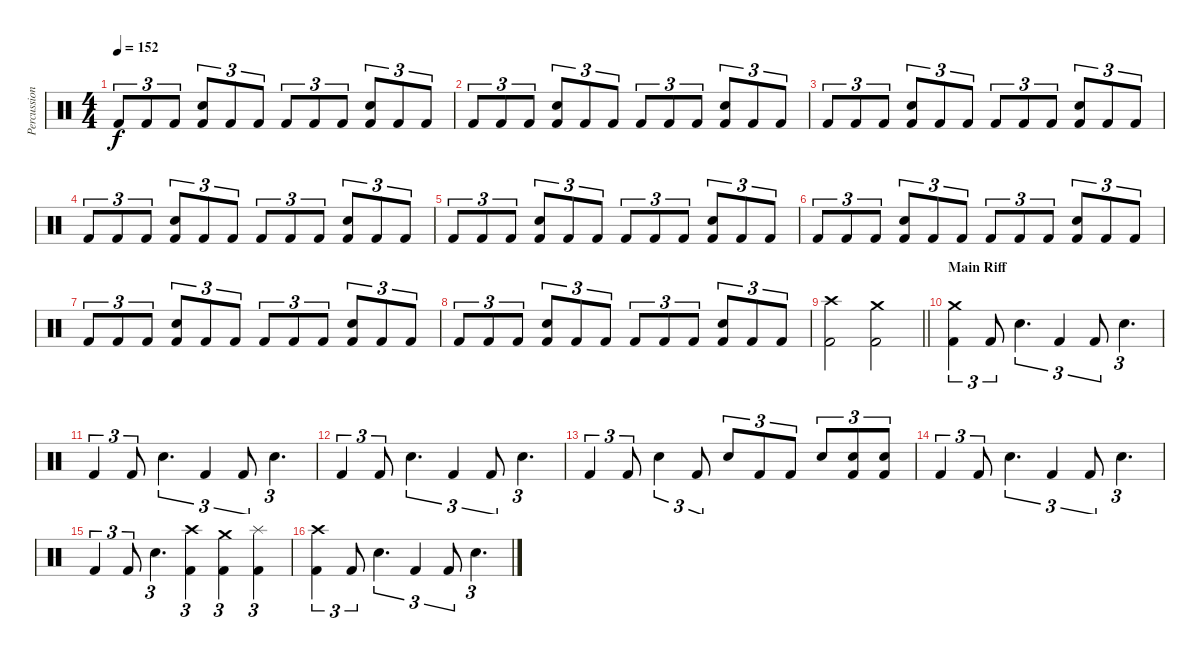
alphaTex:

\track ("Percussion" "Percussion") {instrument percussion}
\staff {score}
\articulation defaults
\ts (4 4)
\tempo 152
\clef neutral
\ks c "Kick (hit) 2".8{tu (3 2) dy f} "Kick (hit) 2".8{tu (3 2)} "Kick (hit) 2".8{tu (3 2)}
("Kick (hit) 2" "Electric Snare (hit)").8{tu (3 2)} "Kick (hit) 2".8{tu (3 2)} "Kick (hit) 2".8{tu (3 2)} "Kick (hit) 2".8{tu (3 2)} "Kick (hit) 2".8{tu (3 2)} "Kick (hit) 2".8{tu (3 2)} ("Kick (hit) 2" "Electric Snare (hit)").8{tu (3 2)} "Kick (hit) 2".8{tu (3 2)} "Kick (hit) 2".8{tu (3 2)} |
"Kick (hit) 2".8{tu (3 2)} "Kick (hit) 2".8{tu (3 2)} "Kick (hit) 2".8{tu (3 2)} ("Kick (hit) 2" "Electric Snare (hit)").8{tu (3 2)} "Kick (hit) 2".8{tu (3 2)} "Kick (hit) 2".8{tu (3 2)} "Kick (hit) 2".8{tu (3 2)} "Kick (hit) 2".8{tu (3 2)} "Kick (hit) 2".8{tu (3 2)} ("Kick (hit) 2" "Electric Snare (hit)").8{tu (3 2)} "Kick (hit) 2".8{tu (3 2)} "Kick (hit) 2".8{tu (3 2)} |
"Kick (hit) 2".8{tu (3 2)} "Kick (hit) 2".8{tu (3 2)} "Kick (hit) 2".8{tu (3 2)} ("Kick (hit) 2" "Electric Snare (hit)").8{tu (3 2)} "Kick (hit) 2".8{tu (3 2)} "Kick (hit) 2".8{tu (3 2)} "Kick (hit) 2".8{tu (3 2)} "Kick (hit) 2".8{tu (3 2)} "Kick (hit) 2".8{tu (3 2)} ("Kick (hit) 2" "Electric Snare (hit)").8{tu (3 2)} "Kick (hit) 2".8{tu (3 2)} "Kick (hit) 2".8{tu (3 2)} |
"Kick (hit) 2".8{tu (3 2)} "Kick (hit) 2".8{tu (3 2)} "Kick (hit) 2".8{tu (3 2)} ("Kick (hit) 2" "Electric Snare (hit)").8{tu (3 2)} "Kick (hit) 2".8{tu (3 2)} "Kick (hit) 2".8{tu (3 2)} "Kick (hit) 2".8{tu (3 2)} "Kick (hit) 2".8{tu (3 2)} "Kick (hit) 2".8{tu (3 2)} ("Kick (hit) 2" "Electric Snare (hit)").8{tu (3 2)} "Kick (hit) 2".8{tu (3 2)} "Kick (hit) 2".8{tu (3 2)} |
"Kick (hit) 2".8{tu (3 2)} "Kick (hit) 2".8{tu (3 2)} "Kick (hit) 2".8{tu (3 2)} ("Kick (hit) 2" "Electric Snare (hit)").8{tu (3 2)} "Kick (hit) 2".8{tu (3 2)} "Kick (hit) 2".8{tu (3 2)} "Kick (hit) 2".8{tu (3 2)} "Kick (hit) 2".8{tu (3 2)} "Kick (hit) 2".8{tu (3 2)} ("Kick (hit) 2" "Electric Snare (hit)").8{tu (3 2)} "Kick (hit) 2".8{tu (3 2)} "Kick (hit) 2".8{tu (3 2)} |
"Kick (hit) 2".8{tu (3 2)} "Kick (hit) 2".8{tu (3 2)} "Kick (hit) 2".8{tu (3 2)} ("Kick (hit) 2" "Electric Snare (hit)").8{tu (3 2)} "Kick (hit) 2".8{tu (3 2)} "Kick (hit) 2".8{tu (3 2)} "Kick (hit) 2".8{tu (3 2)} "Kick (hit) 2".8{tu (3 2)} "Kick (hit) 2".8{tu (3 2)} ("Kick (hit) 2" "Electric Snare (hit)").8{tu (3 2)} "Kick (hit) 2".8{tu (3 2)} "Kick (hit) 2".8{tu (3 2)} |
"Kick (hit) 2".8{tu (3 2)} "Kick (hit) 2".8{tu (3 2)} "Kick (hit) 2".8{tu (3 2)} ("Kick (hit) 2" "Electric Snare (hit)").8{tu (3 2)} "Kick (hit) 2".8{tu (3 2)} "Kick (hit) 2".8{tu (3 2)} "Kick (hit) 2".8{tu (3 2)} "Kick (hit) 2".8{tu (3 2)} "Kick (hit) 2".8{tu (3 2)} ("Kick (hit) 2" "Electric Snare (hit)").8{tu (3 2)} "Kick (hit) 2".8{tu (3 2)} "Kick (hit) 2".8{tu (3 2)} |
"Kick (hit) 2".8{tu (3 2)} "Kick (hit) 2".8{tu (3 2)} "Kick (hit) 2".8{tu (3 2)} ("Kick (hit) 2" "Electric Snare (hit)").8{tu (3 2)} "Kick (hit) 2".8{tu (3 2)} "Kick (hit) 2".8{tu (3 2)} "Kick (hit) 2".8{tu (3 2)} "Kick (hit) 2".8{tu (3 2)} "Kick (hit) 2".8{tu (3 2)} ("Kick (hit) 2" "Electric Snare (hit)").8{tu (3 2)} "Kick (hit) 2".8{tu (3 2)} "Kick (hit) 2".8{tu (3 2)} |
\barLineRight lightlight
("Kick (hit) 2" "Crash high (hit)").2 ("Kick (hit) 2" "Crash medium (hit)").2 |
\section ("" "Main Riff")
("Kick (hit) 2" "Crash medium (hit)").4{tu (3 2)} "Kick (hit) 2".8{tu (3 2)} "Electric Snare (hit)".4{d tu (3 2)} "Kick (hit) 2".4{tu (3 2)} "Kick (hit) 2".8{tu (3 2)} "Electric Snare (hit)".4{d tu (3 2)} |
"Kick (hit) 2".4{tu (3 2)} "Kick (hit) 2".8{tu (3 2)} "Electric Snare (hit)".4{d tu (3 2)} "Kick (hit) 2".4{tu (3 2)} "Kick (hit) 2".8{tu (3 2)} "Electric Snare (hit)".4{d tu (3 2)} |
"Kick (hit) 2".4{tu (3 2)} "Kick (hit) 2".8{tu (3 2)} "Electric Snare (hit)".4{d tu (3 2)} "Kick (hit) 2".4{tu (3 2)} "Kick (hit) 2".8{tu (3 2)} "Electric Snare (hit)".4{d tu (3 2)} |
"Kick (hit) 2".4{tu (3 2)} "Kick (hit) 2".8{tu (3 2)} "Electric Snare (hit)".4{tu (3 2)} "Kick (hit) 2".8{tu (3 2)} "Electric Snare (hit)".8{tu (3 2)} "Kick (hit) 2".8{tu (3 2)} "Kick (hit) 2".8{tu (3 2)} "Electric Snare (hit)".8{tu (3 2)} ("Kick (hit) 2" "Electric Snare (hit)").8{tu (3 2)} ("Kick (hit) 2" "Electric Snare (hit)").8{tu (3 2)} |
"Kick (hit) 2".4{tu (3 2)} "Kick (hit) 2".8{tu (3 2)} "Electric Snare (hit)".4{d tu (3 2)} "Kick (hit) 2".4{tu (3 2)} "Kick (hit) 2".8{tu (3 2)} "Electric Snare (hit)".4{d tu (3 2)} |
"Kick (hit) 2".4{tu (3 2)} "Kick (hit) 2".8{tu (3 2)} "Electric Snare (hit)".4{d tu (3 2)} ("Kick (hit) 2" "Crash high (hit)").4{tu (3 2)} ("Kick (hit) 2" "Crash medium (hit)").4{tu (3 2)} ("Kick (hit) 2" "Splash (hit)").4{tu (3 2)} |
("Kick (hit) 2" "Crash high (hit)").4{tu (3 2)} "Kick (hit) 2".8{tu (3 2)} "Electric Snare (hit)".4{d tu (3 2)} "Kick (hit) 2".4{tu (3 2)} "Kick (hit) 2".8{tu (3 2)} "Electric Snare (hit)".4{d tu (3 2)}
